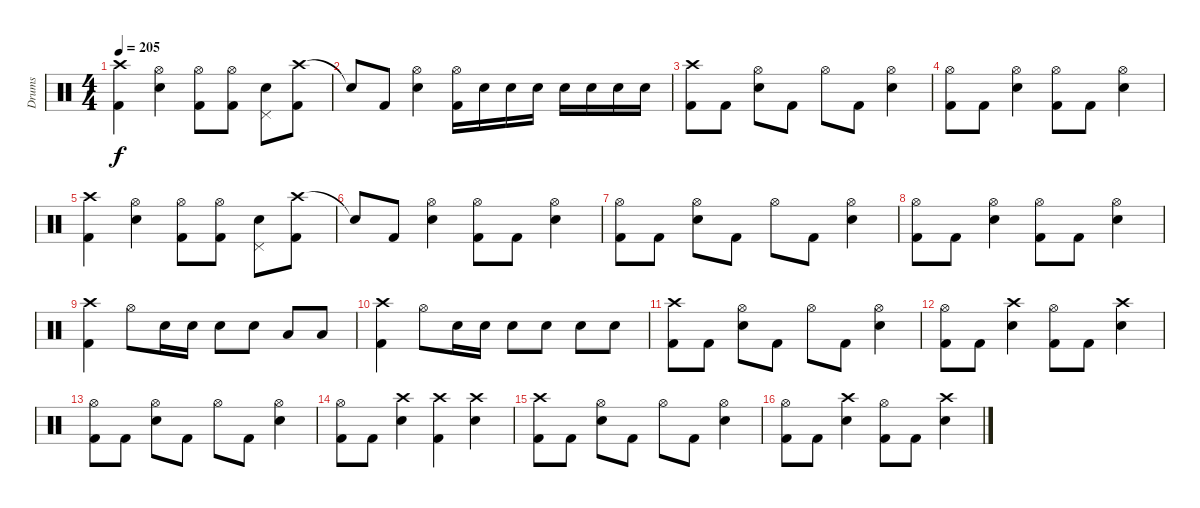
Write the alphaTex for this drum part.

\track ("Drums" "Drums") {instrument percussion}
\staff {score}
\articulation defaults
\ts (4 4)
\tempo 205
\clef neutral
\ks c
("Crash high (hit)" "Kick (hit) 2").4{dy f} ("Hi-Hat (open)" "Electric Snare (hit)").4 ("Hi-Hat (open)" "Kick (hit) 2").8 ("Hi-Hat (open)" "Kick (hit) 2").8 ("Pedal Hi-Hat (hit)" "Electric Snare (hit)").8 ("Crash high (hit)" "Kick (hit) 2").8 |
"Snare (hit)"{t}.8 "Kick (hit) 2".8 ("Hi-Hat (open)" "Electric Snare (hit)").4 ("Hi-Hat (open)" "Kick (hit) 2").16 "Electric Snare (hit)".16 "Electric Snare (hit)".16 "Electric Snare (hit)".16 "Electric Snare (hit)".16 "Electric Snare (hit)".16 "Electric Snare (hit)".16 "Electric Snare (hit)".16 |
("Crash high (hit)" "Kick (hit) 2").8 "Kick (hit) 2".8 ("Hi-Hat (open)" "Electric Snare (hit)").8 "Kick (hit) 2".8 "Hi-Hat (open)".8 "Kick (hit) 2".8 ("Hi-Hat (open)" "Electric Snare (hit)").4 |
("Hi-Hat (open)" "Kick (hit) 2").8 "Kick (hit) 2".8 ("Hi-Hat (open)" "Electric Snare (hit)").4 ("Hi-Hat (open)" "Kick (hit) 2").8 "Kick (hit) 2".8 ("Hi-Hat (open)" "Electric Snare (hit)").4 |
("Crash high (hit)" "Kick (hit) 2").4 ("Hi-Hat (open)" "Electric Snare (hit)").4 ("Hi-Hat (open)" "Kick (hit) 2").8 ("Hi-Hat (open)" "Kick (hit) 2").8 ("Pedal Hi-Hat (hit)" "Electric Snare (hit)").8 ("Crash high (hit)" "Kick (hit) 2").8 |
"Snare (hit)"{t}.8 "Kick (hit) 2".8 ("Hi-Hat (open)" "Electric Snare (hit)").4 ("Hi-Hat (open)" "Kick (hit) 2").8 "Kick (hit) 2".8 ("Hi-Hat (open)" "Electric Snare (hit)").4 |
("Hi-Hat (open)" "Kick (hit) 2").8 "Kick (hit) 2".8 ("Hi-Hat (open)" "Electric Snare (hit)").8 "Kick (hit) 2".8 "Hi-Hat (open)".8 "Kick (hit) 2".8 ("Hi-Hat (open)" "Electric Snare (hit)").4 |
("Hi-Hat (open)" "Kick (hit) 2").8 "Kick (hit) 2".8 ("Hi-Hat (open)" "Electric Snare (hit)").4 ("Hi-Hat (open)" "Kick (hit) 2").8 "Kick (hit) 2".8 ("Hi-Hat (open)" "Electric Snare (hit)").4 |
("Crash high (hit)" "Kick (hit) 2").4 "Hi-Hat (open)".8 "Electric Snare (hit)".16 "Electric Snare (hit)".16 "Electric Snare (hit)".8 "Electric Snare (hit)".8 "Low Tom (hit)".8 "Low Tom (hit)".8 |
("Crash high (hit)" "Kick (hit) 2").4 "Hi-Hat (open)".8 "Electric Snare (hit)".16 "Electric Snare (hit)".16 "Electric Snare (hit)".8 "Electric Snare (hit)".8 "Electric Snare (hit)".8 "Electric Snare (hit)".8 |
("Crash high (hit)" "Kick (hit) 2").8 "Kick (hit) 2".8 ("Hi-Hat (open)" "Electric Snare (hit)").8 "Kick (hit) 2".8 "Hi-Hat (open)".8 "Kick (hit) 2".8 ("Hi-Hat (open)" "Electric Snare (hit)").4 |
("Hi-Hat (open)" "Kick (hit) 2").8 "Kick (hit) 2".8 ("Crash high (hit)" "Electric Snare (hit)").4 ("Hi-Hat (open)" "Kick (hit) 2").8 "Kick (hit) 2".8 ("Crash high (hit)" "Electric Snare (hit)").4 |
("Hi-Hat (open)" "Kick (hit) 2").8 "Kick (hit) 2".8 ("Hi-Hat (open)" "Electric Snare (hit)").8 "Kick (hit) 2".8 "Hi-Hat (open)".8 "Kick (hit) 2".8 ("Hi-Hat (open)" "Electric Snare (hit)").4 |
("Hi-Hat (open)" "Kick (hit) 2").8 "Kick (hit) 2".8 ("Crash high (hit)" "Electric Snare (hit)").4 ("Crash high (hit)" "Kick (hit) 2").4 ("Crash high (hit)" "Electric Snare (hit)").4 |
("Crash high (hit)" "Kick (hit) 2").8 "Kick (hit) 2".8 ("Hi-Hat (open)" "Electric Snare (hit)").8 "Kick (hit) 2".8 "Hi-Hat (open)".8 "Kick (hit) 2".8 ("Hi-Hat (open)" "Electric Snare (hit)").4 |
("Hi-Hat (open)" "Kick (hit) 2").8 "Kick (hit) 2".8 ("Crash high (hit)" "Electric Snare (hit)").4 ("Hi-Hat (open)" "Kick (hit) 2").8 "Kick (hit) 2".8 ("Crash high (hit)" "Electric Snare (hit)").4
